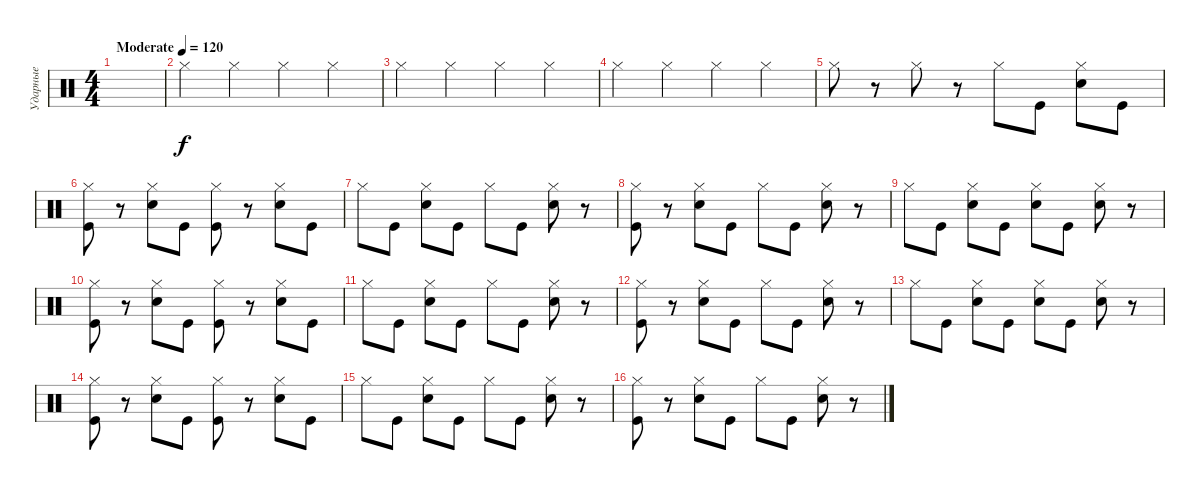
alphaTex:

\track ("Ударные" "Ударные") {instrument percussion}
\staff {score}
\articulation defaults
\ts (4 4)
\tempo (120 "Moderate")
\clef neutral
\ks c
|
"Hi-Hat (closed)".4 "Hi-Hat (closed)".4 "Hi-Hat (closed)".4 "Hi-Hat (closed)".4 |
"Hi-Hat (closed)".4 "Hi-Hat (closed)".4 "Hi-Hat (closed)".4 "Hi-Hat (closed)".4 |
"Hi-Hat (closed)".4 "Hi-Hat (closed)".4 "Hi-Hat (closed)".4 "Hi-Hat (closed)".4 |
"Hi-Hat (closed)".8 r.8 "Hi-Hat (closed)".8 r.8 "Hi-Hat (closed)".8 "Kick (hit)".8 ("Hi-Hat (closed)" "Snare (hit) 2").8 "Kick (hit)".8 |
("Hi-Hat (closed)" "Kick (hit)").8 r.8 ("Hi-Hat (closed)" "Snare (hit) 2").8 "Kick (hit)".8 ("Hi-Hat (closed)" "Kick (hit)").8 r.8 ("Hi-Hat (closed)" "Snare (hit) 2").8 "Kick (hit)".8 |
"Hi-Hat (closed)".8 "Kick (hit)".8 ("Hi-Hat (closed)" "Snare (hit) 2").8 "Kick (hit)".8 "Hi-Hat (closed)".8 "Kick (hit)".8 ("Hi-Hat (closed)" "Snare (hit) 2").8 r.8 |
("Hi-Hat (closed)" "Kick (hit)").8 r.8 ("Hi-Hat (closed)" "Snare (hit) 2").8 "Kick (hit)".8 "Hi-Hat (closed)".8 "Kick (hit)".8 ("Hi-Hat (closed)" "Snare (hit) 2").8 r.8 |
"Hi-Hat (closed)".8 "Kick (hit)".8 ("Hi-Hat (closed)" "Snare (hit) 2").8 "Kick (hit)".8 ("Hi-Hat (closed)" "Snare (hit) 2").8 "Kick (hit)".8 ("Hi-Hat (closed)" "Snare (hit) 2").8 r.8 |
("Hi-Hat (closed)" "Kick (hit)").8 r.8 ("Hi-Hat (closed)" "Snare (hit) 2").8 "Kick (hit)".8 ("Hi-Hat (closed)" "Kick (hit)").8 r.8 ("Hi-Hat (closed)" "Snare (hit) 2").8 "Kick (hit)".8 |
"Hi-Hat (closed)".8 "Kick (hit)".8 ("Hi-Hat (closed)" "Snare (hit) 2").8 "Kick (hit)".8 "Hi-Hat (closed)".8 "Kick (hit)".8 ("Hi-Hat (closed)" "Snare (hit) 2").8 r.8 |
("Hi-Hat (closed)" "Kick (hit)").8 r.8 ("Hi-Hat (closed)" "Snare (hit) 2").8 "Kick (hit)".8 "Hi-Hat (closed)".8 "Kick (hit)".8 ("Hi-Hat (closed)" "Snare (hit) 2").8 r.8 |
"Hi-Hat (closed)".8 "Kick (hit)".8 ("Hi-Hat (closed)" "Snare (hit) 2").8 "Kick (hit)".8 ("Hi-Hat (closed)" "Snare (hit) 2").8 "Kick (hit)".8 ("Hi-Hat (closed)" "Snare (hit) 2").8 r.8 |
("Hi-Hat (closed)" "Kick (hit)").8 r.8 ("Hi-Hat (closed)" "Snare (hit) 2").8 "Kick (hit)".8 ("Hi-Hat (closed)" "Kick (hit)").8 r.8 ("Hi-Hat (closed)" "Snare (hit) 2").8 "Kick (hit)".8 |
"Hi-Hat (closed)".8 "Kick (hit)".8 ("Hi-Hat (closed)" "Snare (hit) 2").8 "Kick (hit)".8 "Hi-Hat (closed)".8 "Kick (hit)".8 ("Hi-Hat (closed)" "Snare (hit) 2").8 r.8 |
("Hi-Hat (closed)" "Kick (hit)").8 r.8 ("Hi-Hat (closed)" "Snare (hit) 2").8 "Kick (hit)".8 "Hi-Hat (closed)".8 "Kick (hit)".8 ("Hi-Hat (closed)" "Snare (hit) 2").8 r.8
